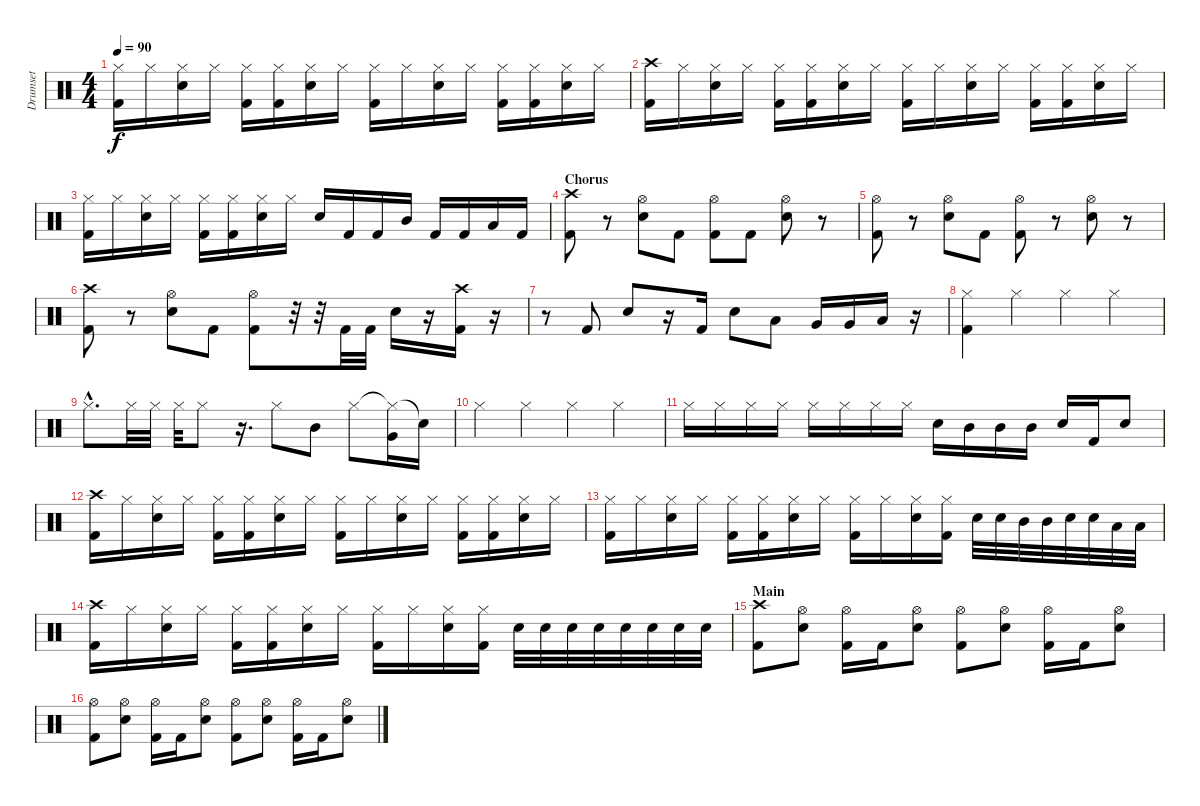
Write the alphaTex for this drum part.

\track ("Drumset" "Drumset") {instrument percussion}
\staff {score}
\articulation defaults
\ts (4 4)
\tempo 90
\clef neutral
\ks c
("Hi-Hat (closed)" "Kick (hit) 2").16{dy f} "Hi-Hat (closed)".16 ("Hi-Hat (closed)" "Electric Snare (hit)").16 "Hi-Hat (closed)".16 ("Hi-Hat (closed)" "Kick (hit) 2").16 ("Hi-Hat (closed)" "Kick (hit) 2").16 ("Hi-Hat (closed)" "Electric Snare (hit)").16 "Hi-Hat (closed)".16 ("Hi-Hat (closed)" "Kick (hit) 2").16 "Hi-Hat (closed)".16 ("Hi-Hat (closed)" "Electric Snare (hit)").16 "Hi-Hat (closed)".16 ("Hi-Hat (closed)" "Kick (hit) 2").16 ("Hi-Hat (closed)" "Kick (hit) 2").16 ("Hi-Hat (closed)" "Electric Snare (hit)").16 "Hi-Hat (closed)".16 |
("Crash high (hit)" "Kick (hit) 2").16 "Hi-Hat (closed)".16 ("Hi-Hat (closed)" "Electric Snare (hit)").16 "Hi-Hat (closed)".16 ("Hi-Hat (closed)" "Kick (hit) 2").16 ("Hi-Hat (closed)" "Kick (hit) 2").16 ("Hi-Hat (closed)" "Electric Snare (hit)").16 "Hi-Hat (closed)".16 ("Hi-Hat (closed)" "Kick (hit) 2").16 "Hi-Hat (closed)".16 ("Hi-Hat (closed)" "Electric Snare (hit)").16 "Hi-Hat (closed)".16 ("Hi-Hat (closed)" "Kick (hit) 2").16 ("Hi-Hat (closed)" "Kick (hit) 2").16 ("Hi-Hat (closed)" "Electric Snare (hit)").16 "Hi-Hat (closed)".16 |
("Hi-Hat (closed)" "Kick (hit) 2").16 "Hi-Hat (closed)".16 ("Hi-Hat (closed)" "Electric Snare (hit)").16 "Hi-Hat (closed)".16 ("Hi-Hat (closed)" "Kick (hit) 2").16 ("Hi-Hat (closed)" "Kick (hit) 2").16 ("Hi-Hat (closed)" "Electric Snare (hit)").16 "Hi-Hat (closed)".16 "Electric Snare (hit)".16 "Kick (hit) 2".16 "Kick (hit) 2".16 "Mid Tom (hit)".16 "Kick (hit) 2".16 "Kick (hit) 2".16 "Low Tom (hit)".16 "Kick (hit) 2".16 |
\section ("" "Chorus")
("Crash high (hit)" "Kick (hit) 2").8 r.8 ("Hi-Hat (open)" "Electric Snare (hit)").8 "Kick (hit) 2".8 ("Hi-Hat (open)" "Kick (hit) 2").8 "Kick (hit) 2".8 ("Hi-Hat (open)" "Electric Snare (hit)").8 r.8 |
("Hi-Hat (open)" "Kick (hit) 2").8 r.8 ("Hi-Hat (open)" "Electric Snare (hit)").8 "Kick (hit) 2".8 ("Hi-Hat (open)" "Kick (hit) 2").8 r.8 ("Hi-Hat (open)" "Electric Snare (hit)").8 r.8 |
("Crash high (hit)" "Kick (hit) 2").8 r.8 ("Hi-Hat (open)" "Electric Snare (hit)").8 "Kick (hit) 2".8 ("Hi-Hat (open)" "Kick (hit) 2").8 r.32 r.32 "Kick (hit) 2".32 "Kick (hit) 2".32 "Electric Snare (hit)".16 r.16 ("Crash high (hit)" "Kick (hit) 2").16 r.16 |
r.8 "Kick (hit) 2".8 "Electric Snare (hit)".8 r.16 "Kick (hit) 2".16 "Electric Snare (hit)".8 "Low Tom (hit)".8 "Very Low Tom (hit)".16 "Very Low Tom (hit)".16 "Low Floor Tom (hit)".16 r.16 |
("Hi-Hat (closed)" "Kick (hit) 2").4 "Hi-Hat (closed)".4 "Hi-Hat (closed)".4 "Hi-Hat (closed)".4 |
"Hi-Hat (closed)"{hac}.8{d} "Hi-Hat (closed)".32 "Hi-Hat (closed)".32 "Hi-Hat (closed)".32 "Hi-Hat (closed)".8 r.16{d} "Hi-Hat (closed)".8 "Mid Tom (hit)".8 "Hi-Hat (closed)".8 ("Hi-Hat (closed)"{t} "Very Low Tom (hit)").16 "Snare (hit)"{t}.16 |
"Hi-Hat (closed)".4 "Hi-Hat (closed)".4 "Hi-Hat (closed)".4 "Hi-Hat (closed)".4 |
"Hi-Hat (closed)".16 "Hi-Hat (closed)".16 "Hi-Hat (closed)".16 "Hi-Hat (closed)".16 "Hi-Hat (closed)".16 "Hi-Hat (closed)".16 "Hi-Hat (closed)".16 "Hi-Hat (closed)".16 "Electric Snare (hit)".16 "Mid Tom (hit)".16 "Mid Tom (hit)".16 "Mid Tom (hit)".16 "Electric Snare (hit)".16 "Kick (hit) 2".16 "Electric Snare (hit)".8 |
("Crash high (hit)" "Kick (hit) 2").16 "Hi-Hat (closed)".16 ("Hi-Hat (closed)" "Electric Snare (hit)").16 "Hi-Hat (closed)".16 ("Hi-Hat (closed)" "Kick (hit) 2").16 ("Hi-Hat (closed)" "Kick (hit) 2").16 ("Hi-Hat (closed)" "Electric Snare (hit)").16 "Hi-Hat (closed)".16 ("Hi-Hat (closed)" "Kick (hit) 2").16 "Hi-Hat (closed)".16 ("Hi-Hat (closed)" "Electric Snare (hit)").16 "Hi-Hat (closed)".16 ("Hi-Hat (closed)" "Kick (hit) 2").16 ("Hi-Hat (closed)" "Kick (hit) 2").16 ("Hi-Hat (closed)" "Electric Snare (hit)").16 "Hi-Hat (closed)".16 |
("Hi-Hat (closed)" "Kick (hit) 2").16 "Hi-Hat (closed)".16 ("Hi-Hat (closed)" "Electric Snare (hit)").16 "Hi-Hat (closed)".16 ("Hi-Hat (closed)" "Kick (hit) 2").16 ("Hi-Hat (closed)" "Kick (hit) 2").16 ("Hi-Hat (closed)" "Electric Snare (hit)").16 "Hi-Hat (closed)".16 ("Hi-Hat (closed)" "Kick (hit) 2").16 "Hi-Hat (closed)".16 ("Hi-Hat (closed)" "Electric Snare (hit)").16 ("Hi-Hat (closed)" "Kick (hit) 2").16 "Electric Snare (hit)".32 "Electric Snare (hit)".32 "Mid Tom (hit)".32 "Mid Tom (hit)".32 "Electric Snare (hit)".32 "Electric Snare (hit)".32 "Low Tom (hit)".32 "Low Tom (hit)".32 |
("Crash high (hit)" "Kick (hit) 2").16 "Hi-Hat (closed)".16 ("Hi-Hat (closed)" "Electric Snare (hit)").16 "Hi-Hat (closed)".16 ("Hi-Hat (closed)" "Kick (hit) 2").16 ("Hi-Hat (closed)" "Kick (hit) 2").16 ("Hi-Hat (closed)" "Electric Snare (hit)").16 "Hi-Hat (closed)".16 ("Hi-Hat (closed)" "Kick (hit) 2").16 "Hi-Hat (closed)".16 ("Hi-Hat (closed)" "Electric Snare (hit)").16 ("Hi-Hat (closed)" "Kick (hit) 2").16 "Electric Snare (hit)".32 "Electric Snare (hit)".32 "Electric Snare (hit)".32 "Electric Snare (hit)".32 "Electric Snare (hit)".32 "Electric Snare (hit)".32 "Electric Snare (hit)".32 "Electric Snare (hit)".32 |
\section ("" "Main")
("Crash high (hit)" "Kick (hit) 2").8 ("Hi-Hat (open)" "Electric Snare (hit)").8 ("Hi-Hat (open)" "Kick (hit) 2").16 "Kick (hit) 2".16 ("Hi-Hat (open)" "Electric Snare (hit)").8 ("Hi-Hat (open)" "Kick (hit) 2").8 ("Hi-Hat (open)" "Electric Snare (hit)").8 ("Hi-Hat (open)" "Kick (hit) 2").16 "Kick (hit) 2".16 ("Hi-Hat (open)" "Electric Snare (hit)").8 |
("Hi-Hat (open)" "Kick (hit) 2").8 ("Hi-Hat (open)" "Electric Snare (hit)").8 ("Hi-Hat (open)" "Kick (hit) 2").16 "Kick (hit) 2".16 ("Hi-Hat (open)" "Electric Snare (hit)").8 ("Hi-Hat (open)" "Kick (hit) 2").8 ("Hi-Hat (open)" "Electric Snare (hit)").8 ("Hi-Hat (open)" "Kick (hit) 2").16 "Kick (hit) 2".16 ("Hi-Hat (open)" "Electric Snare (hit)").8
